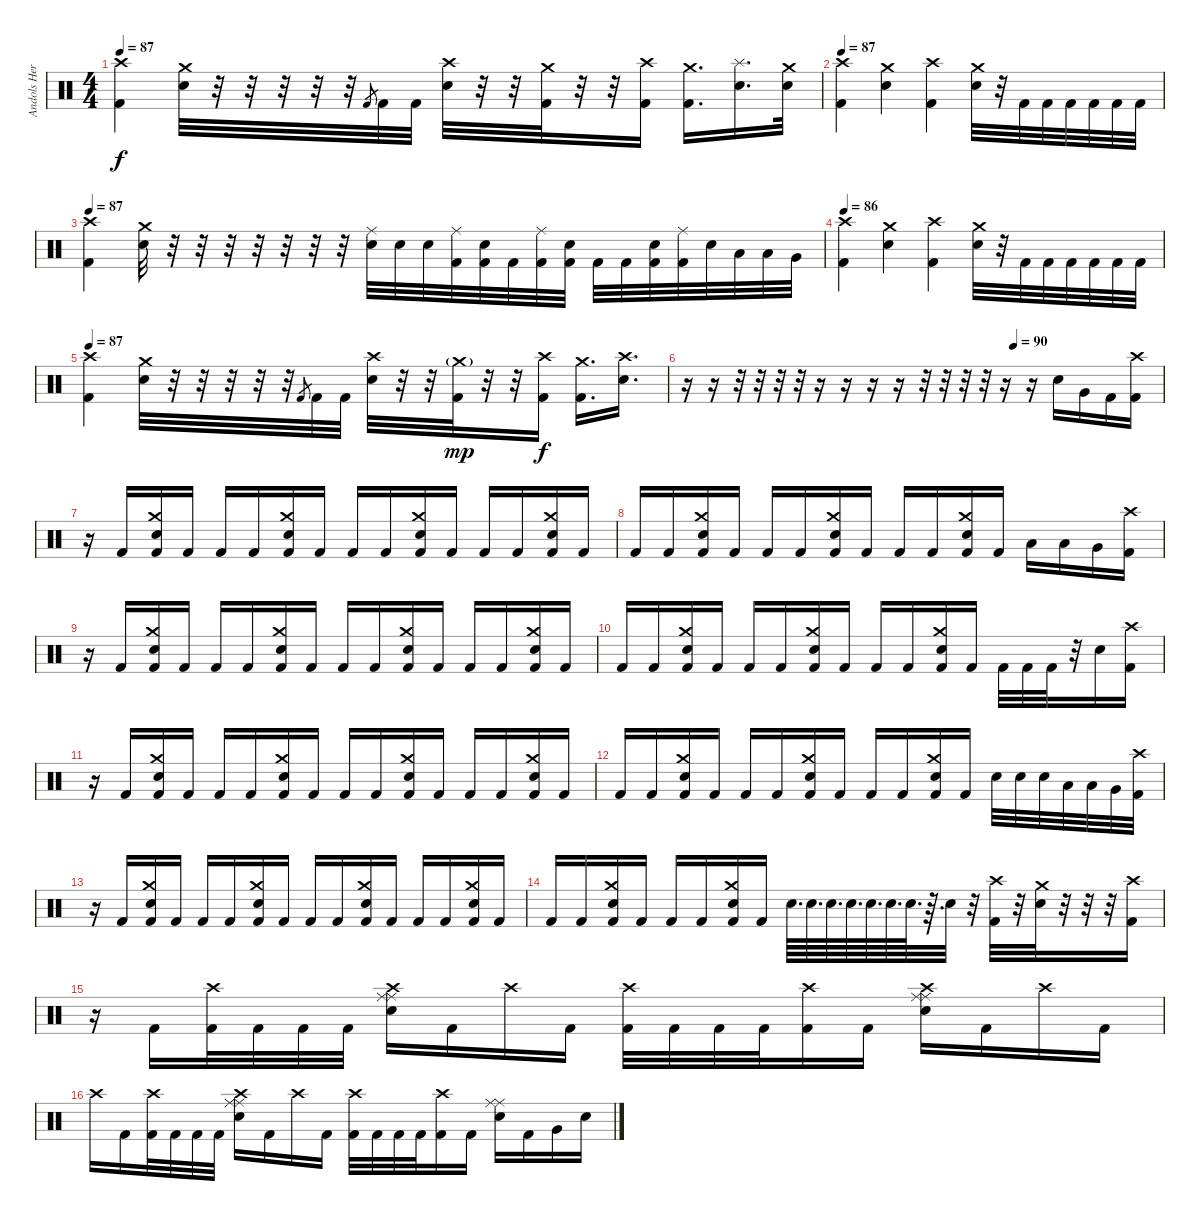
\track ("Andols Herrick" "Andols Her") {instrument percussion}
\staff {score}
\articulation defaults
\ts (4 4)
\tempo 86
\tempo 87
\clef neutral
\ks c
("Crash high (hit)" "Kick (hit) 2").4{dy f} ("Crash medium (hit)" "Electric Snare (hit)").32 r.32 r.32 r.32 r.32 r.32 "Kick (hit) 2".8{gr} "Kick (hit) 2".32 "Kick (hit) 2".32 ("Crash high (hit)" "Electric Snare (hit)").32 r.32 r.32 ("Crash medium (hit)" "Kick (hit) 2").32 r.32 r.32 ("Crash high (hit)" "Kick (hit) 2").16 ("Crash medium (hit)" "Kick (hit) 2").16{d} ("Splash (hit)" "Electric Snare (hit)").16{d} ("Crash medium (hit)" "Electric Snare (hit)").32 |
\tempo 86
\tempo 87
("Crash high (hit)" "Kick (hit) 2").4 ("Crash medium (hit)" "Electric Snare (hit)").4 ("Crash high (hit)" "Kick (hit) 2").4 ("Crash medium (hit)" "Electric Snare (hit)").32 r.32 "Kick (hit) 2".32 "Kick (hit) 2".32 "Kick (hit) 2".32 "Kick (hit) 2".32 "Kick (hit) 2".32 "Kick (hit) 2".32 |
\tempo 86
\tempo 87
("Crash high (hit)" "Kick (hit) 2").4 ("Crash medium (hit)" "Electric Snare (hit)").32 r.32 r.32 r.32 r.32 r.32 r.32 r.32 ("Ride (middle)" "Electric Snare (hit)").32 "Electric Snare (hit)".32 "Electric Snare (hit)".32 ("Ride (middle)" "Kick (hit) 2").32 ("Electric Snare (hit)" "Kick (hit) 2").32 "Kick (hit) 2".32 ("Ride (middle)" "Kick (hit) 2").32 ("Electric Snare (hit)" "Kick (hit) 2").32 "Kick (hit) 2".32 "Kick (hit) 2".32 ("Electric Snare (hit)" "Kick (hit) 2").32 ("Ride (middle)" "Kick (hit) 2").32 "Electric Snare (hit)".32 "Low Tom (hit)".32 "Low Tom (hit)".32 "Very Low Tom (hit)".32 |
\tempo 86
("Crash high (hit)" "Kick (hit) 2").4 ("Crash medium (hit)" "Electric Snare (hit)").4 ("Crash high (hit)" "Kick (hit) 2").4 ("Crash medium (hit)" "Electric Snare (hit)").32 r.32 "Kick (hit) 2".32 "Kick (hit) 2".32 "Kick (hit) 2".32 "Kick (hit) 2".32 "Kick (hit) 2".32 "Kick (hit) 2".32 |
\tempo 86
\tempo 87
("Crash high (hit)" "Kick (hit) 2").4 ("Crash medium (hit)" "Electric Snare (hit)").32 r.32 r.32 r.32 r.32 r.32 "Kick (hit) 2".8{gr} "Kick (hit) 2".32 "Kick (hit) 2".32 ("Crash high (hit)" "Electric Snare (hit)").32 r.32 r.32 ("Crash medium (hit)"{g} "Kick (hit) 2").32{dy mp} r.32 r.32 ("Crash high (hit)" "Kick (hit) 2").16{dy f} ("Crash medium (hit)" "Kick (hit) 2").16{d} ("Crash high (hit)" "Electric Snare (hit)").16{d} |
\tempo (90 0.6875)
r.16 r.16 r.32 r.32 r.32 r.32 r.16 r.16 r.16 r.16 r.32 r.32 r.32 r.32 r.16 r.16 "Electric Snare (hit)".16 "Very Low Tom (hit)".16 "Kick (hit) 2".16 ("Crash high (hit)" "Kick (hit) 2").16 |
r.16 "Kick (hit) 2".16 ("Crash medium (hit)" "Electric Snare (hit)" "Kick (hit) 2").16 "Kick (hit) 2".16 "Kick (hit) 2".16 "Kick (hit) 2".16 ("Crash medium (hit)" "Electric Snare (hit)" "Kick (hit) 2").16 "Kick (hit) 2".16 "Kick (hit) 2".16 "Kick (hit) 2".16 ("Crash medium (hit)" "Electric Snare (hit)" "Kick (hit) 2").16 "Kick (hit) 2".16 "Kick (hit) 2".16 "Kick (hit) 2".16 ("Crash medium (hit)" "Electric Snare (hit)" "Kick (hit) 2").16 "Kick (hit) 2".16 |
"Kick (hit) 2".16 "Kick (hit) 2".16 ("Crash medium (hit)" "Electric Snare (hit)" "Kick (hit) 2").16 "Kick (hit) 2".16 "Kick (hit) 2".16 "Kick (hit) 2".16 ("Crash medium (hit)" "Electric Snare (hit)" "Kick (hit) 2").16 "Kick (hit) 2".16 "Kick (hit) 2".16 "Kick (hit) 2".16 ("Crash medium (hit)" "Electric Snare (hit)" "Kick (hit) 2").16 "Kick (hit) 2".16 "Low Tom (hit)".16 "Low Tom (hit)".16 "Very Low Tom (hit)".16 ("Crash high (hit)" "Kick (hit) 2").16 |
r.16 "Kick (hit) 2".16 ("Crash medium (hit)" "Electric Snare (hit)" "Kick (hit) 2").16 "Kick (hit) 2".16 "Kick (hit) 2".16 "Kick (hit) 2".16 ("Crash medium (hit)" "Electric Snare (hit)" "Kick (hit) 2").16 "Kick (hit) 2".16 "Kick (hit) 2".16 "Kick (hit) 2".16 ("Crash medium (hit)" "Electric Snare (hit)" "Kick (hit) 2").16 "Kick (hit) 2".16 "Kick (hit) 2".16 "Kick (hit) 2".16 ("Crash medium (hit)" "Electric Snare (hit)" "Kick (hit) 2").16 "Kick (hit) 2".16 |
"Kick (hit) 2".16 "Kick (hit) 2".16 ("Crash medium (hit)" "Electric Snare (hit)" "Kick (hit) 2").16 "Kick (hit) 2".16 "Kick (hit) 2".16 "Kick (hit) 2".16 ("Crash medium (hit)" "Electric Snare (hit)" "Kick (hit) 2").16 "Kick (hit) 2".16 "Kick (hit) 2".16 "Kick (hit) 2".16 ("Crash medium (hit)" "Electric Snare (hit)" "Kick (hit) 2").16 "Kick (hit) 2".16 "Kick (hit) 2".32 "Kick (hit) 2".32 "Kick (hit) 2".32 r.32 "Electric Snare (hit)".16 ("Crash high (hit)" "Kick (hit) 2").16 |
r.16 "Kick (hit) 2".16 ("Crash medium (hit)" "Electric Snare (hit)" "Kick (hit) 2").16 "Kick (hit) 2".16 "Kick (hit) 2".16 "Kick (hit) 2".16 ("Crash medium (hit)" "Electric Snare (hit)" "Kick (hit) 2").16 "Kick (hit) 2".16 "Kick (hit) 2".16 "Kick (hit) 2".16 ("Crash medium (hit)" "Electric Snare (hit)" "Kick (hit) 2").16 "Kick (hit) 2".16 "Kick (hit) 2".16 "Kick (hit) 2".16 ("Crash medium (hit)" "Electric Snare (hit)" "Kick (hit) 2").16 "Kick (hit) 2".16 |
"Kick (hit) 2".16 "Kick (hit) 2".16 ("Crash medium (hit)" "Electric Snare (hit)" "Kick (hit) 2").16 "Kick (hit) 2".16 "Kick (hit) 2".16 "Kick (hit) 2".16 ("Crash medium (hit)" "Electric Snare (hit)" "Kick (hit) 2").16 "Kick (hit) 2".16 "Kick (hit) 2".16 "Kick (hit) 2".16 ("Crash medium (hit)" "Electric Snare (hit)" "Kick (hit) 2").16 "Kick (hit) 2".16 "Electric Snare (hit)".32 "Electric Snare (hit)".32 "Electric Snare (hit)".32 "Low Tom (hit)".32 "Low Tom (hit)".32 "Very Low Tom (hit)".32 ("Crash high (hit)" "Kick (hit) 2").32 |
r.16 "Kick (hit) 2".16 ("Crash medium (hit)" "Electric Snare (hit)" "Kick (hit) 2").16 "Kick (hit) 2".16 "Kick (hit) 2".16 "Kick (hit) 2".16 ("Crash medium (hit)" "Electric Snare (hit)" "Kick (hit) 2").16 "Kick (hit) 2".16 "Kick (hit) 2".16 "Kick (hit) 2".16 ("Crash medium (hit)" "Electric Snare (hit)" "Kick (hit) 2").16 "Kick (hit) 2".16 "Kick (hit) 2".16 "Kick (hit) 2".16 ("Crash medium (hit)" "Electric Snare (hit)" "Kick (hit) 2").16 "Kick (hit) 2".16 |
"Kick (hit) 2".16 "Kick (hit) 2".16 ("Crash medium (hit)" "Electric Snare (hit)" "Kick (hit) 2").16 "Kick (hit) 2".16 "Kick (hit) 2".16 "Kick (hit) 2".16 ("Crash medium (hit)" "Electric Snare (hit)" "Kick (hit) 2").16 "Kick (hit) 2".16 "Electric Snare (hit)".64{d} "Electric Snare (hit)".64{d} "Electric Snare (hit)".64{d} "Electric Snare (hit)".64{d} "Electric Snare (hit)".64{d} "Electric Snare (hit)".64{d} "Electric Snare (hit)".64{d} r.64{d} "Electric Snare (hit)".32 r.32 ("Crash high (hit)" "Kick (hit) 2").32 r.32 ("Crash medium (hit)" "Electric Snare (hit)").32 r.32 r.32 r.32 ("Crash high (hit)" "Kick (hit) 2").16 |
r.16 "Kick (hit) 2".16 ("Crash high (hit)" "Kick (hit) 2").32 "Kick (hit) 2".32 "Kick (hit) 2".32 "Kick (hit) 2".32 ("Crash high (hit)" "Ride (middle)" "Ride (middle)" "Electric Snare (hit)").16 "Kick (hit) 2".16 "Crash high (hit)".16 "Kick (hit) 2".16 ("Crash high (hit)" "Kick (hit) 2").32 "Kick (hit) 2".32 "Kick (hit) 2".32 "Kick (hit) 2".32 ("Crash high (hit)" "Kick (hit) 2").16 "Kick (hit) 2".16 ("Crash high (hit)" "Ride (middle)" "Ride (middle)" "Electric Snare (hit)").16 "Kick (hit) 2".16 "Crash high (hit)".16 "Kick (hit) 2".16 |
"Crash high (hit)".16 "Kick (hit) 2".16 ("Crash high (hit)" "Kick (hit) 2").32 "Kick (hit) 2".32 "Kick (hit) 2".32 "Kick (hit) 2".32 ("Crash high (hit)" "Ride (middle)" "Ride (middle)" "Electric Snare (hit)").16 "Kick (hit) 2".16 "Crash high (hit)".16 "Kick (hit) 2".16 ("Crash high (hit)" "Kick (hit) 2").32 "Kick (hit) 2".32 "Kick (hit) 2".32 "Kick (hit) 2".32 ("Crash high (hit)" "Kick (hit) 2").16 "Kick (hit) 2".16 ("Ride (middle)" "Ride (middle)" "Electric Snare (hit)").16 "Kick (hit) 2".16 "Very Low Tom (hit)".16 "Electric Snare (hit)".16
